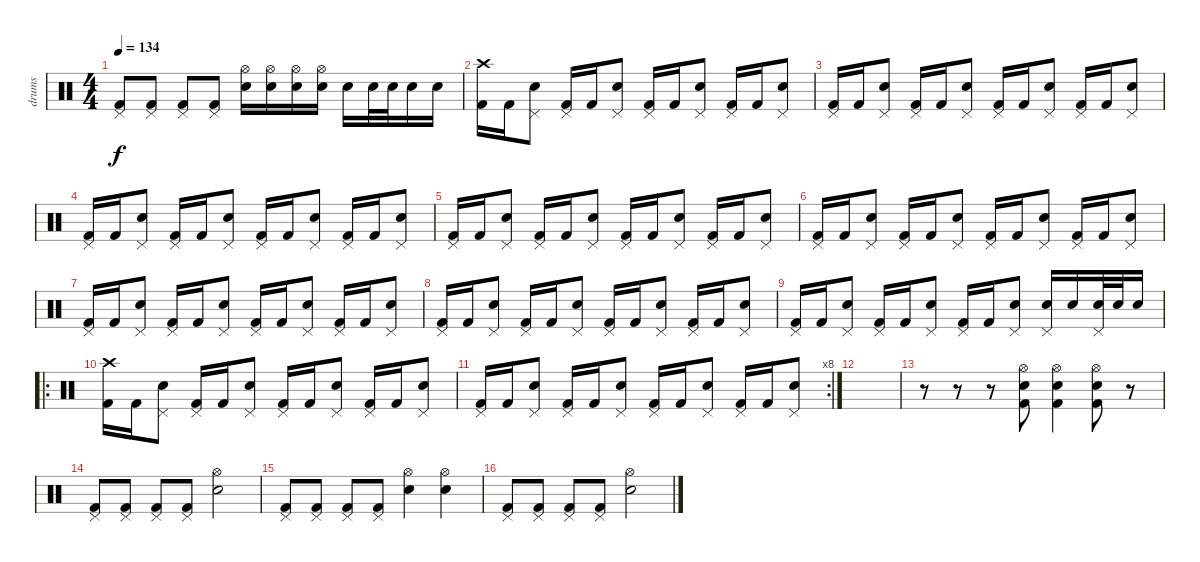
\track ("drums" "drums") {instrument percussion}
\staff {score}
\articulation defaults
\ts (4 4)
\tempo 134
\clef neutral
\ks c
("Kick (hit) 2" "Pedal Hi-Hat (hit)").8{dy f} ("Kick (hit) 2" "Pedal Hi-Hat (hit)").8 ("Kick (hit) 2" "Pedal Hi-Hat (hit)").8 ("Kick (hit) 2" "Pedal Hi-Hat (hit)").8 ("Electric Snare (hit)" "Hi-Hat (open)").16 ("Electric Snare (hit)" "Hi-Hat (open)").16 ("Electric Snare (hit)" "Hi-Hat (open)").16 ("Electric Snare (hit)" "Hi-Hat (open)").16 "Electric Snare (hit)".16 "Electric Snare (hit)".32 "Electric Snare (hit)".32 "Electric Snare (hit)".16 "Electric Snare (hit)".16 |
("Kick (hit) 2" "Crash high (hit)").16 "Kick (hit) 2".16 ("Electric Snare (hit)" "Pedal Hi-Hat (hit)").8 ("Kick (hit) 2" "Pedal Hi-Hat (hit)").16 "Kick (hit) 2".16 ("Electric Snare (hit)" "Pedal Hi-Hat (hit)").8 ("Kick (hit) 2" "Pedal Hi-Hat (hit)").16 "Kick (hit) 2".16 ("Electric Snare (hit)" "Pedal Hi-Hat (hit)").8 ("Kick (hit) 2" "Pedal Hi-Hat (hit)").16 "Kick (hit) 2".16 ("Electric Snare (hit)" "Pedal Hi-Hat (hit)").8 |
("Kick (hit) 2" "Pedal Hi-Hat (hit)").16 "Kick (hit) 2".16 ("Electric Snare (hit)" "Pedal Hi-Hat (hit)").8 ("Kick (hit) 2" "Pedal Hi-Hat (hit)").16 "Kick (hit) 2".16 ("Electric Snare (hit)" "Pedal Hi-Hat (hit)").8 ("Kick (hit) 2" "Pedal Hi-Hat (hit)").16 "Kick (hit) 2".16 ("Electric Snare (hit)" "Pedal Hi-Hat (hit)").8 ("Kick (hit) 2" "Pedal Hi-Hat (hit)").16 "Kick (hit) 2".16 ("Electric Snare (hit)" "Pedal Hi-Hat (hit)").8 |
("Kick (hit) 2" "Pedal Hi-Hat (hit)").16 "Kick (hit) 2".16 ("Electric Snare (hit)" "Pedal Hi-Hat (hit)").8 ("Kick (hit) 2" "Pedal Hi-Hat (hit)").16 "Kick (hit) 2".16 ("Electric Snare (hit)" "Pedal Hi-Hat (hit)").8 ("Kick (hit) 2" "Pedal Hi-Hat (hit)").16 "Kick (hit) 2".16 ("Electric Snare (hit)" "Pedal Hi-Hat (hit)").8 ("Kick (hit) 2" "Pedal Hi-Hat (hit)").16 "Kick (hit) 2".16 ("Electric Snare (hit)" "Pedal Hi-Hat (hit)").8 |
("Kick (hit) 2" "Pedal Hi-Hat (hit)").16 "Kick (hit) 2".16 ("Electric Snare (hit)" "Pedal Hi-Hat (hit)").8 ("Kick (hit) 2" "Pedal Hi-Hat (hit)").16 "Kick (hit) 2".16 ("Electric Snare (hit)" "Pedal Hi-Hat (hit)").8 ("Kick (hit) 2" "Pedal Hi-Hat (hit)").16 "Kick (hit) 2".16 ("Electric Snare (hit)" "Pedal Hi-Hat (hit)").8 ("Kick (hit) 2" "Pedal Hi-Hat (hit)").16 "Kick (hit) 2".16 ("Electric Snare (hit)" "Pedal Hi-Hat (hit)").8 |
("Kick (hit) 2" "Pedal Hi-Hat (hit)").16 "Kick (hit) 2".16 ("Electric Snare (hit)" "Pedal Hi-Hat (hit)").8 ("Kick (hit) 2" "Pedal Hi-Hat (hit)").16 "Kick (hit) 2".16 ("Electric Snare (hit)" "Pedal Hi-Hat (hit)").8 ("Kick (hit) 2" "Pedal Hi-Hat (hit)").16 "Kick (hit) 2".16 ("Electric Snare (hit)" "Pedal Hi-Hat (hit)").8 ("Kick (hit) 2" "Pedal Hi-Hat (hit)").16 "Kick (hit) 2".16 ("Electric Snare (hit)" "Pedal Hi-Hat (hit)").8 |
("Kick (hit) 2" "Pedal Hi-Hat (hit)").16 "Kick (hit) 2".16 ("Electric Snare (hit)" "Pedal Hi-Hat (hit)").8 ("Kick (hit) 2" "Pedal Hi-Hat (hit)").16 "Kick (hit) 2".16 ("Electric Snare (hit)" "Pedal Hi-Hat (hit)").8 ("Kick (hit) 2" "Pedal Hi-Hat (hit)").16 "Kick (hit) 2".16 ("Electric Snare (hit)" "Pedal Hi-Hat (hit)").8 ("Kick (hit) 2" "Pedal Hi-Hat (hit)").16 "Kick (hit) 2".16 ("Electric Snare (hit)" "Pedal Hi-Hat (hit)").8 |
("Kick (hit) 2" "Pedal Hi-Hat (hit)").16 "Kick (hit) 2".16 ("Electric Snare (hit)" "Pedal Hi-Hat (hit)").8 ("Kick (hit) 2" "Pedal Hi-Hat (hit)").16 "Kick (hit) 2".16 ("Electric Snare (hit)" "Pedal Hi-Hat (hit)").8 ("Kick (hit) 2" "Pedal Hi-Hat (hit)").16 "Kick (hit) 2".16 ("Electric Snare (hit)" "Pedal Hi-Hat (hit)").8 ("Kick (hit) 2" "Pedal Hi-Hat (hit)").16 "Kick (hit) 2".16 ("Electric Snare (hit)" "Pedal Hi-Hat (hit)").8 |
("Kick (hit) 2" "Pedal Hi-Hat (hit)").16 "Kick (hit) 2".16 ("Electric Snare (hit)" "Pedal Hi-Hat (hit)").8 ("Kick (hit) 2" "Pedal Hi-Hat (hit)").16 "Kick (hit) 2".16 ("Electric Snare (hit)" "Pedal Hi-Hat (hit)").8 ("Kick (hit) 2" "Pedal Hi-Hat (hit)").16 "Kick (hit) 2".16 ("Electric Snare (hit)" "Pedal Hi-Hat (hit)").8 ("Electric Snare (hit)" "Pedal Hi-Hat (hit)").16 "Electric Snare (hit)".16 ("Electric Snare (hit)" "Pedal Hi-Hat (hit)").32 "Electric Snare (hit)".32 "Electric Snare (hit)".16 |
\ro
("Kick (hit) 2" "Crash high (hit)").16 "Kick (hit) 2".16 ("Electric Snare (hit)" "Pedal Hi-Hat (hit)").8 ("Kick (hit) 2" "Pedal Hi-Hat (hit)").16 "Kick (hit) 2".16 ("Electric Snare (hit)" "Pedal Hi-Hat (hit)").8 ("Kick (hit) 2" "Pedal Hi-Hat (hit)").16 "Kick (hit) 2".16 ("Electric Snare (hit)" "Pedal Hi-Hat (hit)").8 ("Kick (hit) 2" "Pedal Hi-Hat (hit)").16 "Kick (hit) 2".16 ("Electric Snare (hit)" "Pedal Hi-Hat (hit)").8 |
\rc 8
("Kick (hit) 2" "Pedal Hi-Hat (hit)").16 "Kick (hit) 2".16 ("Electric Snare (hit)" "Pedal Hi-Hat (hit)").8 ("Kick (hit) 2" "Pedal Hi-Hat (hit)").16 "Kick (hit) 2".16 ("Electric Snare (hit)" "Pedal Hi-Hat (hit)").8 ("Kick (hit) 2" "Pedal Hi-Hat (hit)").16 "Kick (hit) 2".16 ("Electric Snare (hit)" "Pedal Hi-Hat (hit)").8 ("Kick (hit) 2" "Pedal Hi-Hat (hit)").16 "Kick (hit) 2".16 ("Electric Snare (hit)" "Pedal Hi-Hat (hit)").8 |
|
r.8 r.8 r.8 ("Kick (hit) 2" "Electric Snare (hit)" "Hi-Hat (open)").8 ("Kick (hit) 2" "Electric Snare (hit)" "Hi-Hat (open)").4 ("Kick (hit) 2" "Electric Snare (hit)" "Hi-Hat (open)").8 r.8 |
("Kick (hit) 2" "Pedal Hi-Hat (hit)").8 ("Kick (hit) 2" "Pedal Hi-Hat (hit)").8 ("Kick (hit) 2" "Pedal Hi-Hat (hit)").8 ("Kick (hit) 2" "Pedal Hi-Hat (hit)").8 ("Electric Snare (hit)" "Hi-Hat (open)").2 |
("Kick (hit) 2" "Pedal Hi-Hat (hit)").8 ("Kick (hit) 2" "Pedal Hi-Hat (hit)").8 ("Kick (hit) 2" "Pedal Hi-Hat (hit)").8 ("Kick (hit) 2" "Pedal Hi-Hat (hit)").8 ("Electric Snare (hit)" "Hi-Hat (open)").4 ("Electric Snare (hit)" "Hi-Hat (open)").4 |
("Kick (hit) 2" "Pedal Hi-Hat (hit)").8 ("Kick (hit) 2" "Pedal Hi-Hat (hit)").8 ("Kick (hit) 2" "Pedal Hi-Hat (hit)").8 ("Kick (hit) 2" "Pedal Hi-Hat (hit)").8 ("Electric Snare (hit)" "Hi-Hat (open)").2
